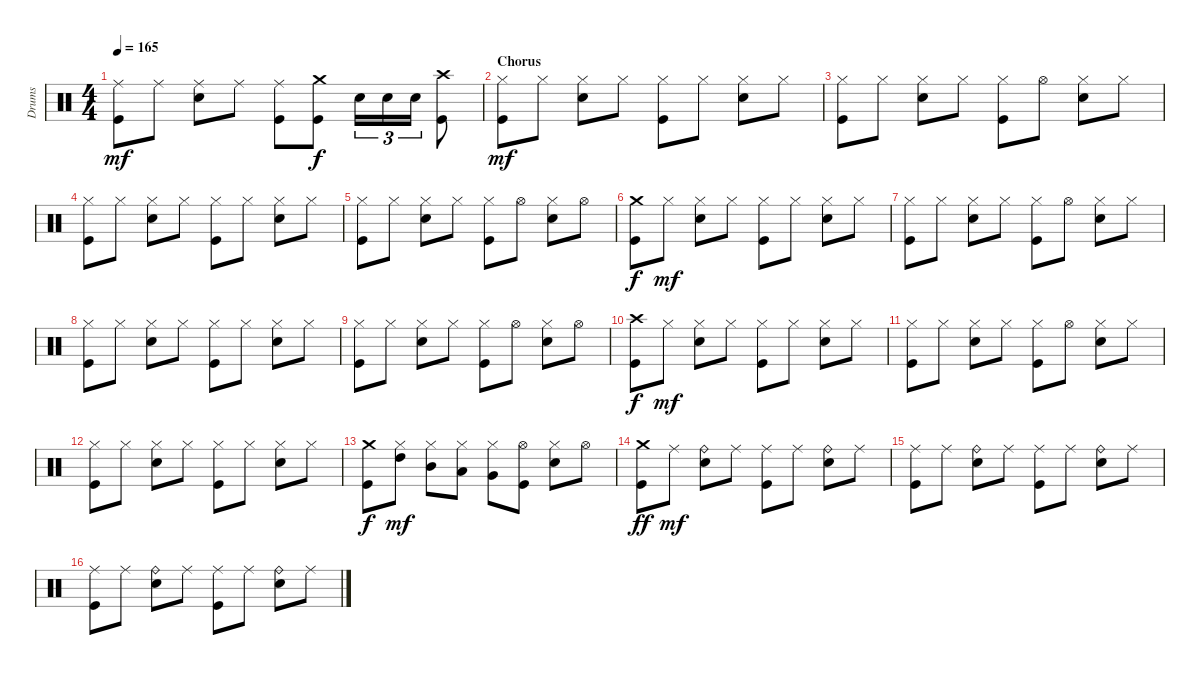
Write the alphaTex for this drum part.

\track ("Drums" "Drums") {instrument percussion}
\staff {score}
\articulation defaults
\ts (4 4)
\tempo 165
\clef neutral
\ks c
("Ride (middle)" "Kick (hit)").8{dy mf} "Ride (middle)".8 ("Ride (middle)" "Electric Snare (hit)").8 "Ride (middle)".8 ("Ride (middle)" "Kick (hit)").8 ("Crash medium (hit)" "Kick (hit)").8{dy f} "Electric Snare (hit)".16{tu (3 2)} "Electric Snare (hit)".16{tu (3 2)} "Electric Snare (hit)".16{tu (3 2)} ("Crash high (hit)" "Kick (hit)").8 |
\section ("" "Chorus")
("Hi-Hat (closed)" "Kick (hit)").8{dy mf} "Hi-Hat (closed)".8 ("Hi-Hat (closed)" "Electric Snare (hit)").8 "Hi-Hat (closed)".8 ("Hi-Hat (closed)" "Kick (hit)").8 "Hi-Hat (closed)".8 ("Hi-Hat (closed)" "Electric Snare (hit)").8 "Hi-Hat (closed)".8 |
("Hi-Hat (closed)" "Kick (hit)").8 "Hi-Hat (closed)".8 ("Hi-Hat (closed)" "Electric Snare (hit)").8 "Hi-Hat (closed)".8 ("Hi-Hat (closed)" "Kick (hit)").8 "Hi-Hat (open)".8 ("Hi-Hat (closed)" "Electric Snare (hit)").8 "Hi-Hat (closed)".8 |
("Hi-Hat (closed)" "Kick (hit)").8 "Hi-Hat (closed)".8 ("Hi-Hat (closed)" "Electric Snare (hit)").8 "Hi-Hat (closed)".8 ("Hi-Hat (closed)" "Kick (hit)").8 "Hi-Hat (closed)".8 ("Hi-Hat (closed)" "Electric Snare (hit)").8 "Hi-Hat (closed)".8 |
("Hi-Hat (closed)" "Kick (hit)").8 "Hi-Hat (closed)".8 ("Hi-Hat (closed)" "Electric Snare (hit)").8 "Hi-Hat (closed)".8 ("Hi-Hat (closed)" "Kick (hit)").8 "Hi-Hat (open)".8 ("Hi-Hat (closed)" "Electric Snare (hit)").8 "Hi-Hat (open)".8 |
("Crash medium (hit)" "Kick (hit)").8{dy f} "Hi-Hat (closed)".8{dy mf} ("Hi-Hat (closed)" "Electric Snare (hit)").8 "Hi-Hat (closed)".8 ("Hi-Hat (closed)" "Kick (hit)").8 "Hi-Hat (closed)".8 ("Hi-Hat (closed)" "Electric Snare (hit)").8 "Hi-Hat (closed)".8 |
("Hi-Hat (closed)" "Kick (hit)").8 "Hi-Hat (closed)".8 ("Hi-Hat (closed)" "Electric Snare (hit)").8 "Hi-Hat (closed)".8 ("Hi-Hat (closed)" "Kick (hit)").8 "Hi-Hat (open)".8 ("Hi-Hat (closed)" "Electric Snare (hit)").8 "Hi-Hat (closed)".8 |
("Hi-Hat (closed)" "Kick (hit)").8 "Hi-Hat (closed)".8 ("Hi-Hat (closed)" "Electric Snare (hit)").8 "Hi-Hat (closed)".8 ("Hi-Hat (closed)" "Kick (hit)").8 "Hi-Hat (closed)".8 ("Hi-Hat (closed)" "Electric Snare (hit)").8 "Hi-Hat (closed)".8 |
("Hi-Hat (closed)" "Kick (hit)").8 "Hi-Hat (closed)".8 ("Hi-Hat (closed)" "Electric Snare (hit)").8 "Hi-Hat (closed)".8 ("Hi-Hat (closed)" "Kick (hit)").8 "Hi-Hat (open)".8 ("Hi-Hat (closed)" "Electric Snare (hit)").8 "Hi-Hat (open)".8 |
("Crash high (hit)" "Kick (hit)").8{dy f} "Hi-Hat (closed)".8{dy mf} ("Hi-Hat (closed)" "Electric Snare (hit)").8 "Hi-Hat (closed)".8 ("Hi-Hat (closed)" "Kick (hit)").8 "Hi-Hat (closed)".8 ("Hi-Hat (closed)" "Electric Snare (hit)").8 "Hi-Hat (closed)".8 |
("Hi-Hat (closed)" "Kick (hit)").8 "Hi-Hat (closed)".8 ("Hi-Hat (closed)" "Electric Snare (hit)").8 "Hi-Hat (closed)".8 ("Hi-Hat (closed)" "Kick (hit)").8 "Hi-Hat (open)".8 ("Hi-Hat (closed)" "Electric Snare (hit)").8 "Hi-Hat (closed)".8 |
("Hi-Hat (closed)" "Kick (hit)").8 "Hi-Hat (closed)".8 ("Hi-Hat (closed)" "Electric Snare (hit)").8 "Hi-Hat (closed)".8 ("Hi-Hat (closed)" "Kick (hit)").8 "Hi-Hat (closed)".8 ("Hi-Hat (closed)" "Electric Snare (hit)").8 "Hi-Hat (closed)".8 |
("Crash medium (hit)" "Kick (hit)").8{dy f} ("Hi-Hat (closed)" "High Tom (hit)").8{dy mf} ("Hi-Hat (closed)" "Mid Tom (hit)").8 ("Hi-Hat (closed)" "Low Tom (hit)").8 ("Hi-Hat (closed)" "Very Low Tom (hit)").8 ("Hi-Hat (open)" "Kick (hit)").8 ("Hi-Hat (closed)" "Electric Snare (hit)").8 "Hi-Hat (open)".8 |
("Crash medium (hit)" "Kick (hit)").8{dy ff} "Ride (middle)".8{dy mf} ("Ride (bell)" "Electric Snare (hit)").8 "Ride (middle)".8 ("Ride (middle)" "Kick (hit)").8 "Ride (middle)".8 ("Ride (bell)" "Electric Snare (hit)").8 "Ride (middle)".8 |
("Ride (middle)" "Kick (hit)").8 "Ride (middle)".8 ("Ride (bell)" "Electric Snare (hit)").8 "Ride (middle)".8 ("Ride (middle)" "Kick (hit)").8 "Ride (middle)".8 ("Ride (bell)" "Electric Snare (hit)").8 "Ride (middle)".8 |
("Ride (middle)" "Kick (hit)").8 "Ride (middle)".8 ("Ride (bell)" "Electric Snare (hit)").8 "Ride (middle)".8 ("Ride (middle)" "Kick (hit)").8 "Ride (middle)".8 ("Ride (bell)" "Electric Snare (hit)").8 "Ride (middle)".8
